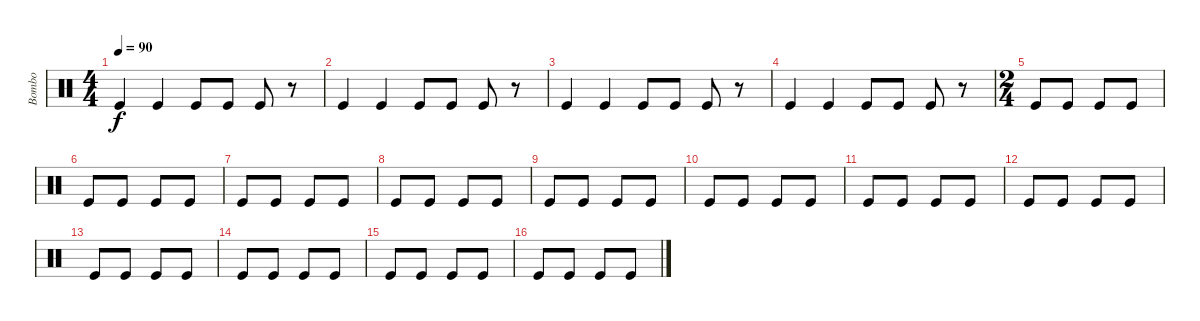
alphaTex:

\track ("Bombo" "Bombo") {instrument percussion}
\staff {score}
\articulation defaults
\ts (4 4)
\tempo 90
\clef neutral
\ks c "Kick (hit)".4{dy f} "Kick (hit)".4 "Kick (hit)".8 "Kick (hit)".8 "Kick (hit)".8
r.8 |
"Kick (hit)".4 "Kick (hit)".4 "Kick (hit)".8 "Kick (hit)".8 "Kick (hit)".8 r.8 |
"Kick (hit)".4 "Kick (hit)".4 "Kick (hit)".8 "Kick (hit)".8 "Kick (hit)".8 r.8 |
"Kick (hit)".4 "Kick (hit)".4 "Kick (hit)".8 "Kick (hit)".8 "Kick (hit)".8 r.8 |
\ts (2 4)
"Kick (hit)".8 "Kick (hit)".8 "Kick (hit)".8 "Kick (hit)".8 |
"Kick (hit)".8 "Kick (hit)".8 "Kick (hit)".8 "Kick (hit)".8 |
"Kick (hit)".8 "Kick (hit)".8 "Kick (hit)".8 "Kick (hit)".8 |
"Kick (hit)".8 "Kick (hit)".8 "Kick (hit)".8 "Kick (hit)".8 |
"Kick (hit)".8 "Kick (hit)".8 "Kick (hit)".8 "Kick (hit)".8 |
"Kick (hit)".8 "Kick (hit)".8 "Kick (hit)".8 "Kick (hit)".8 |
"Kick (hit)".8 "Kick (hit)".8 "Kick (hit)".8 "Kick (hit)".8 |
"Kick (hit)".8 "Kick (hit)".8 "Kick (hit)".8 "Kick (hit)".8 |
"Kick (hit)".8 "Kick (hit)".8 "Kick (hit)".8 "Kick (hit)".8 |
"Kick (hit)".8 "Kick (hit)".8 "Kick (hit)".8 "Kick (hit)".8 |
"Kick (hit)".8 "Kick (hit)".8 "Kick (hit)".8 "Kick (hit)".8 |
"Kick (hit)".8 "Kick (hit)".8 "Kick (hit)".8 "Kick (hit)".8
